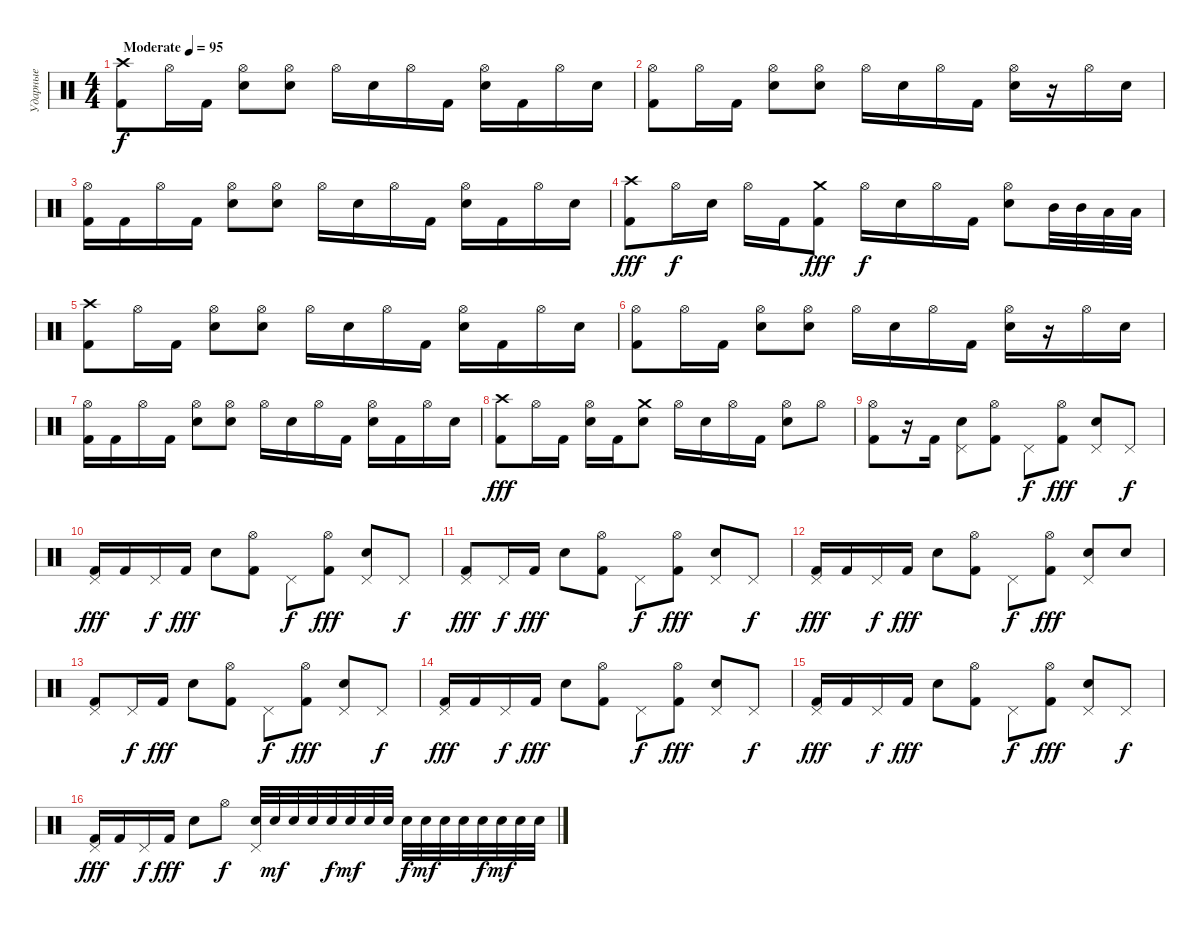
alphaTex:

\track ("Ударные" "Ударные") {instrument percussion}
\staff {score}
\articulation defaults
\ts (4 4)
\tempo (95 "Moderate")
\clef neutral
\ks c
("Crash high (hit)" "Kick (hit) 2").8{dy f} "Hi-Hat (open)".16 "Kick (hit) 2".16 ("Hi-Hat (open)" "Electric Snare (hit)").8 ("Hi-Hat (open)" "Electric Snare (hit)").8 "Hi-Hat (open)".16 "Electric Snare (hit)".16 "Hi-Hat (open)".16 "Kick (hit) 2".16 ("Hi-Hat (open)" "Electric Snare (hit)").16 "Kick (hit) 2".16 "Hi-Hat (open)".16 "Electric Snare (hit)".16 |
("Hi-Hat (open)" "Kick (hit) 2").8 "Hi-Hat (open)".16 "Kick (hit) 2".16 ("Hi-Hat (open)" "Electric Snare (hit)").8 ("Hi-Hat (open)" "Electric Snare (hit)").8 "Hi-Hat (open)".16 "Electric Snare (hit)".16 "Hi-Hat (open)".16 "Kick (hit) 2".16 ("Hi-Hat (open)" "Electric Snare (hit)").16 r.16 "Hi-Hat (open)".16 "Electric Snare (hit)".16 |
("Hi-Hat (open)" "Kick (hit) 2").16 "Kick (hit) 2".16 "Hi-Hat (open)".16 "Kick (hit) 2".16 ("Hi-Hat (open)" "Electric Snare (hit)").8 ("Hi-Hat (open)" "Electric Snare (hit)").8 "Hi-Hat (open)".16 "Electric Snare (hit)".16 "Hi-Hat (open)".16 "Kick (hit) 2".16 ("Hi-Hat (open)" "Electric Snare (hit)").16 "Kick (hit) 2".16 "Hi-Hat (open)".16 "Electric Snare (hit)".16 |
("Crash high (hit)" "Kick (hit) 2").8{dy fff} "Hi-Hat (open)".16{dy f} "Electric Snare (hit)".16 "Hi-Hat (open)".16 "Kick (hit) 2".16 ("Crash medium (hit)" "Kick (hit) 2").8{dy fff} "Hi-Hat (open)".16{dy f} "Electric Snare (hit)".16 "Hi-Hat (open)".16 "Kick (hit) 2".16 ("Hi-Hat (open)" "Electric Snare (hit)").8 "Mid Tom (hit)".32 "Mid Tom (hit)".32 "Low Tom (hit)".32 "Low Tom (hit)".32 |
("Crash high (hit)" "Kick (hit) 2").8 "Hi-Hat (open)".16 "Kick (hit) 2".16 ("Hi-Hat (open)" "Electric Snare (hit)").8 ("Hi-Hat (open)" "Electric Snare (hit)").8 "Hi-Hat (open)".16 "Electric Snare (hit)".16 "Hi-Hat (open)".16 "Kick (hit) 2".16 ("Hi-Hat (open)" "Electric Snare (hit)").16 "Kick (hit) 2".16 "Hi-Hat (open)".16 "Electric Snare (hit)".16 |
("Hi-Hat (open)" "Kick (hit) 2").8 "Hi-Hat (open)".16 "Kick (hit) 2".16 ("Hi-Hat (open)" "Electric Snare (hit)").8 ("Hi-Hat (open)" "Electric Snare (hit)").8 "Hi-Hat (open)".16 "Electric Snare (hit)".16 "Hi-Hat (open)".16 "Kick (hit) 2".16 ("Hi-Hat (open)" "Electric Snare (hit)").16 r.16 "Hi-Hat (open)".16 "Electric Snare (hit)".16 |
("Hi-Hat (open)" "Kick (hit) 2").16 "Kick (hit) 2".16 "Hi-Hat (open)".16 "Kick (hit) 2".16 ("Hi-Hat (open)" "Electric Snare (hit)").8 ("Hi-Hat (open)" "Electric Snare (hit)").8 "Hi-Hat (open)".16 "Electric Snare (hit)".16 "Hi-Hat (open)".16 "Kick (hit) 2".16 ("Hi-Hat (open)" "Electric Snare (hit)").16 "Kick (hit) 2".16 "Hi-Hat (open)".16 "Electric Snare (hit)".16 |
("Crash high (hit)" "Kick (hit) 2").8{dy fff} "Hi-Hat (open)".16 "Kick (hit) 2".16 ("Hi-Hat (open)" "Electric Snare (hit)").16 "Kick (hit) 2".16 ("Crash medium (hit)" "Electric Snare (hit)").8 "Hi-Hat (open)".16 "Electric Snare (hit)".16 "Hi-Hat (open)".16 "Kick (hit) 2".16 ("Hi-Hat (open)" "Electric Snare (hit)").8 "Hi-Hat (open)".8 |
("Hi-Hat (open)" "Kick (hit) 2").8 r.16 "Kick (hit) 2".16 ("Pedal Hi-Hat (hit)" "Electric Snare (hit)").8 ("Hi-Hat (open)" "Kick (hit) 2").8 "Pedal Hi-Hat (hit)".8{dy f} ("Hi-Hat (open)" "Kick (hit) 2").8{dy fff} ("Pedal Hi-Hat (hit)" "Electric Snare (hit)").8 "Pedal Hi-Hat (hit)".8{dy f} |
("Pedal Hi-Hat (hit)" "Kick (hit) 2").16{dy fff} "Kick (hit) 2".16 "Pedal Hi-Hat (hit)".16{dy f} "Kick (hit) 2".16{dy fff} "Electric Snare (hit)".8 ("Hi-Hat (open)" "Kick (hit) 2").8 "Pedal Hi-Hat (hit)".8{dy f} ("Hi-Hat (open)" "Kick (hit) 2").8{dy fff} ("Pedal Hi-Hat (hit)" "Electric Snare (hit)").8 "Pedal Hi-Hat (hit)".8{dy f} |
("Pedal Hi-Hat (hit)" "Kick (hit) 2").8{dy fff} "Pedal Hi-Hat (hit)".16{dy f} "Kick (hit) 2".16{dy fff} "Electric Snare (hit)".8 ("Hi-Hat (open)" "Kick (hit) 2").8 "Pedal Hi-Hat (hit)".8{dy f} ("Hi-Hat (open)" "Kick (hit) 2").8{dy fff} ("Pedal Hi-Hat (hit)" "Electric Snare (hit)").8 "Pedal Hi-Hat (hit)".8{dy f} |
("Pedal Hi-Hat (hit)" "Kick (hit) 2").16{dy fff} "Kick (hit) 2".16 "Pedal Hi-Hat (hit)".16{dy f} "Kick (hit) 2".16{dy fff} "Electric Snare (hit)".8 ("Hi-Hat (open)" "Kick (hit) 2").8 "Pedal Hi-Hat (hit)".8{dy f} ("Hi-Hat (open)" "Kick (hit) 2").8{dy fff} ("Pedal Hi-Hat (hit)" "Electric Snare (hit)").8 "Electric Snare (hit)".8 |
("Pedal Hi-Hat (hit)" "Kick (hit) 2").8 "Pedal Hi-Hat (hit)".16{dy f} "Kick (hit) 2".16{dy fff} "Electric Snare (hit)".8 ("Hi-Hat (open)" "Kick (hit) 2").8 "Pedal Hi-Hat (hit)".8{dy f} ("Hi-Hat (open)" "Kick (hit) 2").8{dy fff} ("Pedal Hi-Hat (hit)" "Electric Snare (hit)").8 "Pedal Hi-Hat (hit)".8{dy f} |
("Pedal Hi-Hat (hit)" "Kick (hit) 2").16{dy fff} "Kick (hit) 2".16 "Pedal Hi-Hat (hit)".16{dy f} "Kick (hit) 2".16{dy fff} "Electric Snare (hit)".8 ("Hi-Hat (open)" "Kick (hit) 2").8 "Pedal Hi-Hat (hit)".8{dy f} ("Hi-Hat (open)" "Kick (hit) 2").8{dy fff} ("Pedal Hi-Hat (hit)" "Electric Snare (hit)").8 "Pedal Hi-Hat (hit)".8{dy f} |
("Pedal Hi-Hat (hit)" "Kick (hit) 2").16{dy fff} "Kick (hit) 2".16 "Pedal Hi-Hat (hit)".16{dy f} "Kick (hit) 2".16{dy fff} "Electric Snare (hit)".8 ("Hi-Hat (open)" "Kick (hit) 2").8 "Pedal Hi-Hat (hit)".8{dy f} ("Hi-Hat (open)" "Kick (hit) 2").8{dy fff} ("Pedal Hi-Hat (hit)" "Electric Snare (hit)").8 "Pedal Hi-Hat (hit)".8{dy f} |
("Pedal Hi-Hat (hit)" "Kick (hit) 2").16{dy fff} "Kick (hit) 2".16 "Pedal Hi-Hat (hit)".16{dy f} "Kick (hit) 2".16{dy fff} "Electric Snare (hit)".8 "Hi-Hat (open)".8{dy f} ("Pedal Hi-Hat (hit)" "Electric Snare (hit)").32 "Electric Snare (hit)".32{dy mf} "Electric Snare (hit)".32 "Electric Snare (hit)".32 "Electric Snare (hit)".32{dy f} "Electric Snare (hit)".32{dy mf} "Electric Snare (hit)".32 "Electric Snare (hit)".32 "Electric Snare (hit)".32{dy f} "Electric Snare (hit)".32{dy mf} "Electric Snare (hit)".32 "Electric Snare (hit)".32 "Electric Snare (hit)".32{dy f} "Electric Snare (hit)".32{dy mf} "Electric Snare (hit)".32 "Electric Snare (hit)".32
